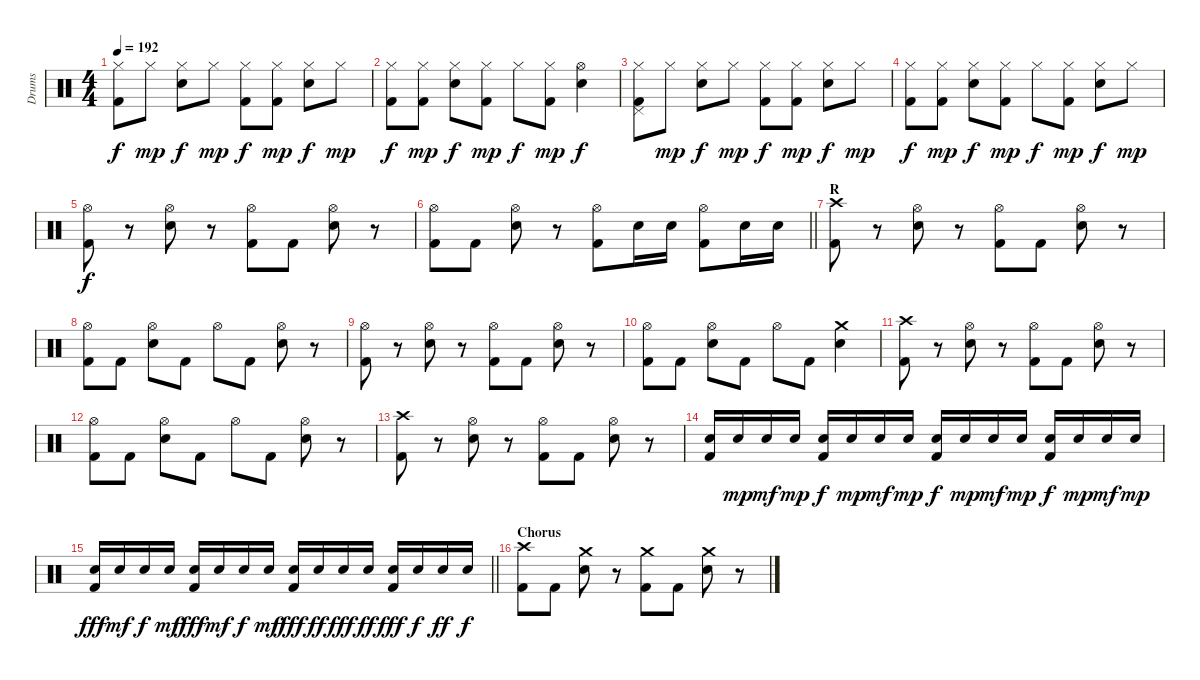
\track ("Drums" "Drums") {instrument percussion}
\staff {score}
\articulation defaults
\ts (4 4)
\tempo 192
\clef neutral
\ks c
("Hi-Hat (closed)" "Kick (hit) 2").8{dy f} "Hi-Hat (closed)".8{dy mp} ("Hi-Hat (closed)" "Snare (hit) 2").8{dy f} "Hi-Hat (closed)".8{dy mp} ("Hi-Hat (closed)" "Kick (hit) 2").8{dy f} ("Hi-Hat (closed)" "Kick (hit) 2").8{dy mp} ("Hi-Hat (closed)" "Snare (hit) 2").8{dy f} "Hi-Hat (closed)".8{dy mp} |
("Hi-Hat (closed)" "Kick (hit) 2").8{dy f} ("Hi-Hat (closed)" "Kick (hit) 2").8{dy mp} ("Hi-Hat (closed)" "Snare (hit) 2").8{dy f} ("Hi-Hat (closed)" "Kick (hit) 2").8{dy mp} "Hi-Hat (closed)".8{dy f} ("Hi-Hat (closed)" "Kick (hit) 2").8{dy mp} ("Hi-Hat (open)" "Snare (hit) 2").4{dy f} |
("Hi-Hat (closed)" "Pedal Hi-Hat (hit)" "Kick (hit) 2").8 "Hi-Hat (closed)".8{dy mp} ("Hi-Hat (closed)" "Snare (hit) 2").8{dy f} "Hi-Hat (closed)".8{dy mp} ("Hi-Hat (closed)" "Kick (hit) 2").8{dy f} ("Hi-Hat (closed)" "Kick (hit) 2").8{dy mp} ("Hi-Hat (closed)" "Snare (hit) 2").8{dy f} "Hi-Hat (closed)".8{dy mp} |
("Hi-Hat (closed)" "Kick (hit) 2").8{dy f} ("Hi-Hat (closed)" "Kick (hit) 2").8{dy mp} ("Hi-Hat (closed)" "Snare (hit) 2").8{dy f} ("Hi-Hat (closed)" "Kick (hit) 2").8{dy mp} "Hi-Hat (closed)".8{dy f} ("Hi-Hat (closed)" "Kick (hit) 2").8{dy mp} ("Hi-Hat (closed)" "Snare (hit) 2").8{dy f} "Hi-Hat (closed)".8{dy mp} |
("Hi-Hat (open)" "Kick (hit) 2").8{dy f} r.8 ("Hi-Hat (open)" "Snare (hit) 2").8 r.8 ("Hi-Hat (open)" "Kick (hit) 2").8 "Kick (hit) 2".8 ("Hi-Hat (open)" "Snare (hit) 2").8 r.8 |
\barLineRight lightlight
("Hi-Hat (open)" "Kick (hit) 2").8 "Kick (hit) 2".8 ("Hi-Hat (open)" "Snare (hit) 2").8 r.8 ("Hi-Hat (open)" "Kick (hit) 2").8 "Snare (hit) 2".16 "Snare (hit) 2".16 ("Hi-Hat (open)" "Kick (hit) 2").8 "Snare (hit) 2".16 "Snare (hit) 2".16 |
\section ("" "R")
("Crash high (hit)" "Kick (hit) 2").8 r.8 ("Hi-Hat (open)" "Snare (hit) 2").8 r.8 ("Hi-Hat (open)" "Kick (hit) 2").8 "Kick (hit) 2".8 ("Hi-Hat (open)" "Snare (hit) 2").8 r.8 |
("Hi-Hat (open)" "Kick (hit) 2").8 "Kick (hit) 2".8 ("Hi-Hat (open)" "Snare (hit) 2").8 "Kick (hit) 2".8 "Hi-Hat (open)".8 "Kick (hit) 2".8 ("Hi-Hat (open)" "Snare (hit) 2").8 r.8 |
("Hi-Hat (open)" "Kick (hit) 2").8 r.8 ("Hi-Hat (open)" "Snare (hit) 2").8 r.8 ("Hi-Hat (open)" "Kick (hit) 2").8 "Kick (hit) 2".8 ("Hi-Hat (open)" "Snare (hit) 2").8 r.8 |
("Hi-Hat (open)" "Kick (hit) 2").8 "Kick (hit) 2".8 ("Hi-Hat (open)" "Snare (hit) 2").8 "Kick (hit) 2".8 "Hi-Hat (open)".8 "Kick (hit) 2".8 ("Crash medium (hit)" "Snare (hit) 2").4 |
("Crash high (hit)" "Kick (hit) 2").8 r.8 ("Hi-Hat (open)" "Snare (hit) 2").8 r.8 ("Hi-Hat (open)" "Kick (hit) 2").8 "Kick (hit) 2".8 ("Hi-Hat (open)" "Snare (hit) 2").8 r.8 |
("Hi-Hat (open)" "Kick (hit) 2").8 "Kick (hit) 2".8 ("Hi-Hat (open)" "Snare (hit) 2").8 "Kick (hit) 2".8 "Hi-Hat (open)".8 "Kick (hit) 2".8 ("Hi-Hat (open)" "Snare (hit) 2").8 r.8 |
("Crash high (hit)" "Kick (hit) 2").8 r.8 ("Hi-Hat (open)" "Snare (hit) 2").8 r.8 ("Hi-Hat (open)" "Kick (hit) 2").8 "Kick (hit) 2".8 ("Hi-Hat (open)" "Snare (hit) 2").8 r.8 |
("Snare (hit) 2" "Kick (hit) 2").16 "Snare (hit) 2".16{dy mp} "Snare (hit) 2".16{dy mf} "Snare (hit) 2".16{dy mp} ("Snare (hit) 2" "Kick (hit) 2").16{dy f} "Snare (hit) 2".16{dy mp} "Snare (hit) 2".16{dy mf} "Snare (hit) 2".16{dy mp} ("Snare (hit) 2" "Kick (hit) 2").16{dy f} "Snare (hit) 2".16{dy mp} "Snare (hit) 2".16{dy mf} "Snare (hit) 2".16{dy mp} ("Snare (hit) 2" "Kick (hit) 2").16{dy f} "Snare (hit) 2".16{dy mp} "Snare (hit) 2".16{dy mf} "Snare (hit) 2".16{dy mp} |
\barLineRight lightlight
("Snare (hit) 2" "Kick (hit) 2").16{dy fff} "Snare (hit) 2".16{dy mf} "Snare (hit) 2".16{dy f} "Snare (hit) 2".16{dy mf} ("Snare (hit) 2" "Kick (hit) 2").16{dy fff} "Snare (hit) 2".16{dy mf} "Snare (hit) 2".16{dy f} "Snare (hit) 2".16{dy mf} ("Snare (hit) 2" "Kick (hit) 2").16{dy fff} "Snare (hit) 2".16{dy ff} "Snare (hit) 2".16{dy fff} "Snare (hit) 2".16{dy ff} ("Snare (hit) 2" "Kick (hit) 2").16{dy fff} "Snare (hit) 2".16{dy f} "Snare (hit) 2".16{dy ff} "Snare (hit) 2".16{dy f} |
\section ("" "Chorus")
("Crash high (hit)" "Kick (hit) 2").8 "Kick (hit) 2".8 ("Crash medium (hit)" "Snare (hit) 2").8 r.8 ("Crash medium (hit)" "Kick (hit) 2").8 "Kick (hit) 2".8 ("Crash medium (hit)" "Snare (hit) 2").8 r.8
